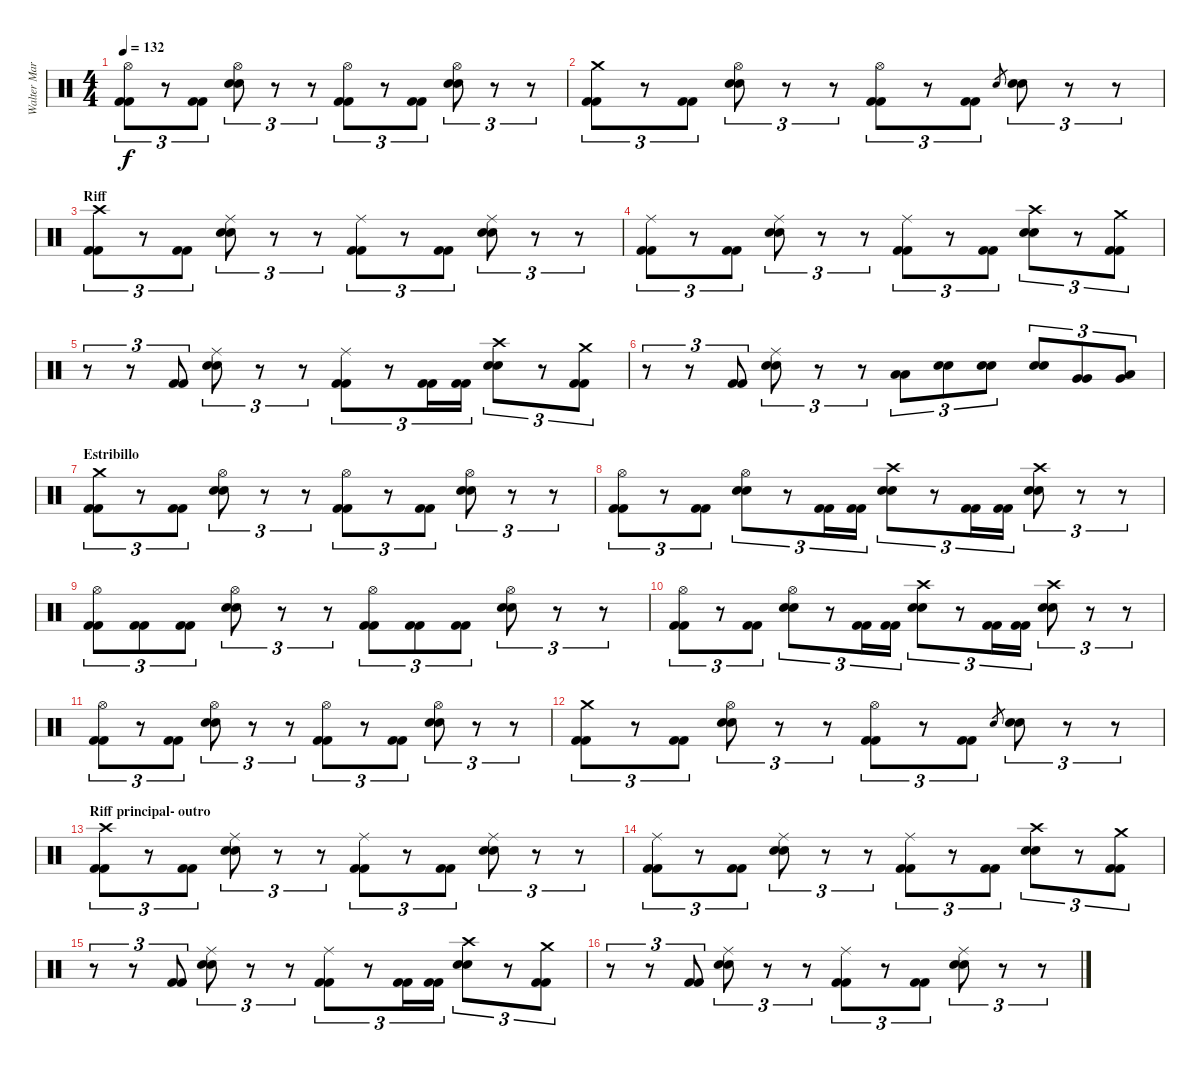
\track ("Walter Martinez (bateria)" "Walter Mar") {instrument percussion}
\staff {score}
\articulation defaults
\ts (4 4)
\tempo 132
\clef neutral
\ks c
("Hi-Hat (open)" "Kick (hit) 2" "Kick (hit) 2").8{tu (3 2) dy f} r.8{tu (3 2)} ("Kick (hit) 2" "Kick (hit) 2").8{tu (3 2)} ("Hi-Hat (open)" "Snare (hit) 2" "Snare (hit) 2").8{tu (3 2)} r.8{tu (3 2)} r.8{tu (3 2)} ("Hi-Hat (open)" "Kick (hit) 2" "Kick (hit) 2").8{tu (3 2)} r.8{tu (3 2)} ("Kick (hit) 2" "Kick (hit) 2").8{tu (3 2)} ("Hi-Hat (open)" "Snare (hit) 2" "Snare (hit) 2").8{tu (3 2)} r.8{tu (3 2)} r.8{tu (3 2)} |
("Crash medium (hit)" "Kick (hit) 2" "Kick (hit) 2").8{tu (3 2)} r.8{tu (3 2)} ("Kick (hit) 2" "Kick (hit) 2").8{tu (3 2)} ("Hi-Hat (open)" "Snare (hit) 2" "Snare (hit) 2").8{tu (3 2)} r.8{tu (3 2)} r.8{tu (3 2)} ("Hi-Hat (open)" "Kick (hit) 2" "Kick (hit) 2").8{tu (3 2)} r.8{tu (3 2)} ("Kick (hit) 2" "Kick (hit) 2").8{tu (3 2)} "Snare (hit) 2".8{gr} ("Snare (hit) 2" "Snare (hit) 2").8{tu (3 2)} r.8{tu (3 2)} r.8{tu (3 2)} |
\section ("" "Riff")
("Crash high (hit)" "Kick (hit) 2" "Kick (hit) 2").8{tu (3 2)} r.8{tu (3 2)} ("Kick (hit) 2" "Kick (hit) 2").8{tu (3 2)} ("Ride (middle)" "Snare (hit) 2" "Snare (hit) 2").8{tu (3 2)} r.8{tu (3 2)} r.8{tu (3 2)} ("Ride (middle)" "Kick (hit) 2" "Kick (hit) 2").8{tu (3 2)} r.8{tu (3 2)} ("Kick (hit) 2" "Kick (hit) 2").8{tu (3 2)} ("Ride (middle)" "Snare (hit) 2" "Snare (hit) 2").8{tu (3 2)} r.8{tu (3 2)} r.8{tu (3 2)} |
("Ride (middle)" "Kick (hit) 2" "Kick (hit) 2").8{tu (3 2)} r.8{tu (3 2)} ("Kick (hit) 2" "Kick (hit) 2").8{tu (3 2)} ("Ride (middle)" "Snare (hit) 2" "Snare (hit) 2").8{tu (3 2)} r.8{tu (3 2)} r.8{tu (3 2)} ("Ride (middle)" "Kick (hit) 2" "Kick (hit) 2").8{tu (3 2)} r.8{tu (3 2)} ("Kick (hit) 2" "Kick (hit) 2").8{tu (3 2)} ("Crash high (hit)" "Snare (hit) 2" "Snare (hit) 2").8{tu (3 2)} r.8{tu (3 2)} ("Crash medium (hit)" "Kick (hit) 2" "Kick (hit) 2").8{tu (3 2)} |
r.8{tu (3 2)} r.8{tu (3 2)} ("Kick (hit) 2" "Kick (hit) 2").8{tu (3 2)} ("Ride (middle)" "Snare (hit) 2" "Snare (hit) 2").8{tu (3 2)} r.8{tu (3 2)} r.8{tu (3 2)} ("Ride (middle)" "Kick (hit) 2" "Kick (hit) 2").8{tu (3 2)} r.8{tu (3 2)} ("Kick (hit) 2" "Kick (hit) 2").16{tu (3 2)} ("Kick (hit) 2" "Kick (hit) 2").16{tu (3 2)} ("Crash high (hit)" "Snare (hit) 2" "Snare (hit) 2").8{tu (3 2)} r.8{tu (3 2)} ("Crash medium (hit)" "Kick (hit) 2" "Kick (hit) 2").8{tu (3 2)} |
r.8{tu (3 2)} r.8{tu (3 2)} ("Kick (hit) 2" "Kick (hit) 2").8{tu (3 2)} ("Ride (middle)" "Snare (hit) 2" "Snare (hit) 2").8{tu (3 2)} r.8{tu (3 2)} r.8{tu (3 2)} ("Low Tom (hit)" "Low Tom (hit)").8{tu (3 2)} ("Snare (hit) 2" "Snare (hit) 2").8{tu (3 2)} ("Snare (hit) 2" "Snare (hit) 2").8{tu (3 2)} ("Snare (hit) 2" "Snare (hit) 2").8{tu (3 2)} ("Very Low Tom (hit)" "Very Low Tom (hit)").8{tu (3 2)} ("Very Low Tom (hit)" "Low Floor Tom (hit)").8{tu (3 2)} |
\section ("" "Estribillo")
("Crash medium (hit)" "Kick (hit) 2" "Kick (hit) 2").8{tu (3 2)} r.8{tu (3 2)} ("Kick (hit) 2" "Kick (hit) 2").8{tu (3 2)} ("Hi-Hat (open)" "Snare (hit) 2" "Snare (hit) 2").8{tu (3 2)} r.8{tu (3 2)} r.8{tu (3 2)} ("Hi-Hat (open)" "Kick (hit) 2" "Kick (hit) 2").8{tu (3 2)} r.8{tu (3 2)} ("Kick (hit) 2" "Kick (hit) 2").8{tu (3 2)} ("Hi-Hat (open)" "Snare (hit) 2" "Snare (hit) 2").8{tu (3 2)} r.8{tu (3 2)} r.8{tu (3 2)} |
("Hi-Hat (open)" "Kick (hit) 2" "Kick (hit) 2").8{tu (3 2)} r.8{tu (3 2)} ("Kick (hit) 2" "Kick (hit) 2").8{tu (3 2)} ("Hi-Hat (open)" "Snare (hit) 2" "Snare (hit) 2").8{tu (3 2)} r.8{tu (3 2)} ("Kick (hit) 2" "Kick (hit) 2").16{tu (3 2)} ("Kick (hit) 2" "Kick (hit) 2").16{tu (3 2)} ("Crash high (hit)" "Snare (hit) 2" "Snare (hit) 2").8{tu (3 2)} r.8{tu (3 2)} ("Kick (hit) 2" "Kick (hit) 2").16{tu (3 2)} ("Kick (hit) 2" "Kick (hit) 2").16{tu (3 2)} ("Crash high (hit)" "Snare (hit) 2" "Snare (hit) 2").8{tu (3 2)} r.8{tu (3 2)} r.8{tu (3 2)} |
("Hi-Hat (open)" "Kick (hit) 2" "Kick (hit) 2").8{tu (3 2)} ("Kick (hit) 2" "Kick (hit) 2").8{tu (3 2)} ("Kick (hit) 2" "Kick (hit) 2").8{tu (3 2)} ("Hi-Hat (open)" "Snare (hit) 2" "Snare (hit) 2").8{tu (3 2)} r.8{tu (3 2)} r.8{tu (3 2)} ("Hi-Hat (open)" "Kick (hit) 2" "Kick (hit) 2").8{tu (3 2)} ("Kick (hit) 2" "Kick (hit) 2").8{tu (3 2)} ("Kick (hit) 2" "Kick (hit) 2").8{tu (3 2)} ("Hi-Hat (open)" "Snare (hit) 2" "Snare (hit) 2").8{tu (3 2)} r.8{tu (3 2)} r.8{tu (3 2)} |
("Hi-Hat (open)" "Kick (hit) 2" "Kick (hit) 2").8{tu (3 2)} r.8{tu (3 2)} ("Kick (hit) 2" "Kick (hit) 2").8{tu (3 2)} ("Hi-Hat (open)" "Snare (hit) 2" "Snare (hit) 2").8{tu (3 2)} r.8{tu (3 2)} ("Kick (hit) 2" "Kick (hit) 2").16{tu (3 2)} ("Kick (hit) 2" "Kick (hit) 2").16{tu (3 2)} ("Crash high (hit)" "Snare (hit) 2" "Snare (hit) 2").8{tu (3 2)} r.8{tu (3 2)} ("Kick (hit) 2" "Kick (hit) 2").16{tu (3 2)} ("Kick (hit) 2" "Kick (hit) 2").16{tu (3 2)} ("Crash high (hit)" "Snare (hit) 2" "Snare (hit) 2").8{tu (3 2)} r.8{tu (3 2)} r.8{tu (3 2)} |
("Hi-Hat (open)" "Kick (hit) 2" "Kick (hit) 2").8{tu (3 2)} r.8{tu (3 2)} ("Kick (hit) 2" "Kick (hit) 2").8{tu (3 2)} ("Hi-Hat (open)" "Snare (hit) 2" "Snare (hit) 2").8{tu (3 2)} r.8{tu (3 2)} r.8{tu (3 2)} ("Hi-Hat (open)" "Kick (hit) 2" "Kick (hit) 2").8{tu (3 2)} r.8{tu (3 2)} ("Kick (hit) 2" "Kick (hit) 2").8{tu (3 2)} ("Hi-Hat (open)" "Snare (hit) 2" "Snare (hit) 2").8{tu (3 2)} r.8{tu (3 2)} r.8{tu (3 2)} |
("Crash medium (hit)" "Kick (hit) 2" "Kick (hit) 2").8{tu (3 2)} r.8{tu (3 2)} ("Kick (hit) 2" "Kick (hit) 2").8{tu (3 2)} ("Hi-Hat (open)" "Snare (hit) 2" "Snare (hit) 2").8{tu (3 2)} r.8{tu (3 2)} r.8{tu (3 2)} ("Hi-Hat (open)" "Kick (hit) 2" "Kick (hit) 2").8{tu (3 2)} r.8{tu (3 2)} ("Kick (hit) 2" "Kick (hit) 2").8{tu (3 2)} "Snare (hit) 2".8{gr} ("Snare (hit) 2" "Snare (hit) 2").8{tu (3 2)} r.8{tu (3 2)} r.8{tu (3 2)} |
\section ("" "Riff principal- outro")
("Crash high (hit)" "Kick (hit) 2" "Kick (hit) 2").8{tu (3 2)} r.8{tu (3 2)} ("Kick (hit) 2" "Kick (hit) 2").8{tu (3 2)} ("Ride (middle)" "Snare (hit) 2" "Snare (hit) 2").8{tu (3 2)} r.8{tu (3 2)} r.8{tu (3 2)} ("Ride (middle)" "Kick (hit) 2" "Kick (hit) 2").8{tu (3 2)} r.8{tu (3 2)} ("Kick (hit) 2" "Kick (hit) 2").8{tu (3 2)} ("Ride (middle)" "Snare (hit) 2" "Snare (hit) 2").8{tu (3 2)} r.8{tu (3 2)} r.8{tu (3 2)} |
("Ride (middle)" "Kick (hit) 2" "Kick (hit) 2").8{tu (3 2)} r.8{tu (3 2)} ("Kick (hit) 2" "Kick (hit) 2").8{tu (3 2)} ("Ride (middle)" "Snare (hit) 2" "Snare (hit) 2").8{tu (3 2)} r.8{tu (3 2)} r.8{tu (3 2)} ("Ride (middle)" "Kick (hit) 2" "Kick (hit) 2").8{tu (3 2)} r.8{tu (3 2)} ("Kick (hit) 2" "Kick (hit) 2").8{tu (3 2)} ("Crash high (hit)" "Snare (hit) 2" "Snare (hit) 2").8{tu (3 2)} r.8{tu (3 2)} ("Crash medium (hit)" "Kick (hit) 2" "Kick (hit) 2").8{tu (3 2)} |
r.8{tu (3 2)} r.8{tu (3 2)} ("Kick (hit) 2" "Kick (hit) 2").8{tu (3 2)} ("Ride (middle)" "Snare (hit) 2" "Snare (hit) 2").8{tu (3 2)} r.8{tu (3 2)} r.8{tu (3 2)} ("Ride (middle)" "Kick (hit) 2" "Kick (hit) 2").8{tu (3 2)} r.8{tu (3 2)} ("Kick (hit) 2" "Kick (hit) 2").16{tu (3 2)} ("Kick (hit) 2" "Kick (hit) 2").16{tu (3 2)} ("Crash high (hit)" "Snare (hit) 2" "Snare (hit) 2").8{tu (3 2)} r.8{tu (3 2)} ("Crash medium (hit)" "Kick (hit) 2" "Kick (hit) 2").8{tu (3 2)} |
r.8{tu (3 2)} r.8{tu (3 2)} ("Kick (hit) 2" "Kick (hit) 2").8{tu (3 2)} ("Ride (middle)" "Snare (hit) 2" "Snare (hit) 2").8{tu (3 2)} r.8{tu (3 2)} r.8{tu (3 2)} ("Ride (middle)" "Kick (hit) 2" "Kick (hit) 2").8{tu (3 2)} r.8{tu (3 2)} ("Kick (hit) 2" "Kick (hit) 2").8{tu (3 2)} ("Ride (middle)" "Snare (hit) 2" "Snare (hit) 2").8{tu (3 2)} r.8{tu (3 2)} r.8{tu (3 2)}
